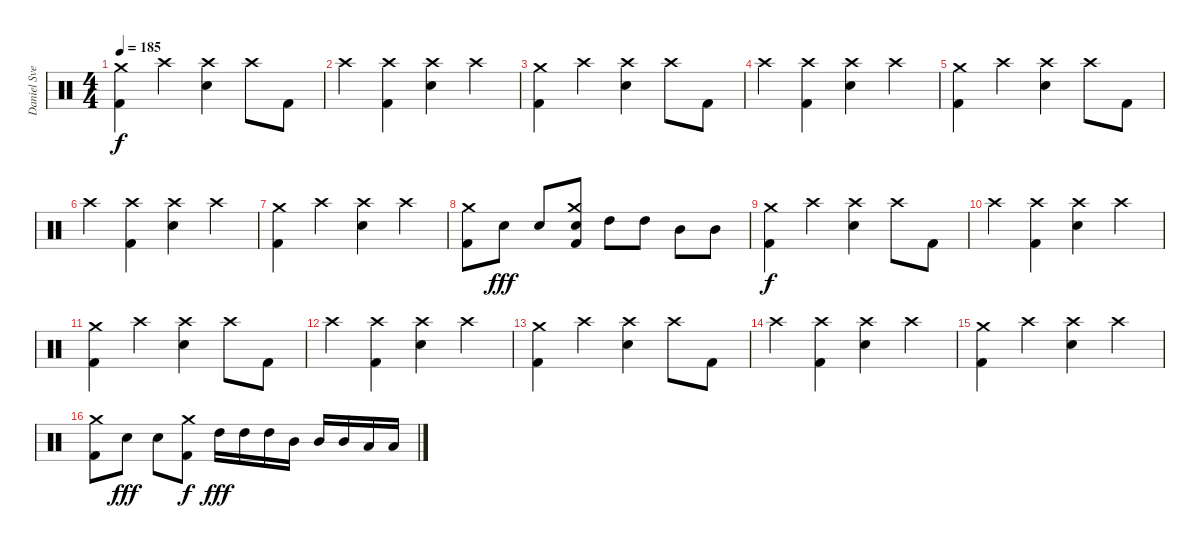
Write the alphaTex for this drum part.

\track ("Daniel Svensson" "Daniel Sve") {instrument percussion}
\staff {score}
\articulation defaults
\ts (4 4)
\tempo 185
\clef neutral
\ks c
("Kick (hit) 2" "Crash medium (hit)").4{dy f} "Crash high (hit)".4 ("Electric Snare (hit)" "Crash high (hit)").4 "Crash high (hit)".8 "Kick (hit) 2".8 |
"Crash high (hit)".4 ("Kick (hit) 2" "Crash high (hit)").4 ("Electric Snare (hit)" "Crash high (hit)").4 "Crash high (hit)".4 |
("Kick (hit) 2" "Crash medium (hit)").4 "Crash high (hit)".4 ("Electric Snare (hit)" "Crash high (hit)").4 "Crash high (hit)".8 "Kick (hit) 2".8 |
"Crash high (hit)".4 ("Kick (hit) 2" "Crash high (hit)").4 ("Electric Snare (hit)" "Crash high (hit)").4 "Crash high (hit)".4 |
("Kick (hit) 2" "Crash medium (hit)").4 "Crash high (hit)".4 ("Electric Snare (hit)" "Crash high (hit)").4 "Crash high (hit)".8 "Kick (hit) 2".8 |
"Crash high (hit)".4 ("Kick (hit) 2" "Crash high (hit)").4 ("Electric Snare (hit)" "Crash high (hit)").4 "Crash high (hit)".4 |
("Kick (hit) 2" "Crash medium (hit)").4 "Crash high (hit)".4 ("Electric Snare (hit)" "Crash high (hit)").4 "Crash high (hit)".4 |
("Kick (hit) 2" "Crash medium (hit)").8 "Electric Snare (hit)".8{dy fff} "Electric Snare (hit)".8 ("Kick (hit) 2" "Electric Snare (hit)" "Crash medium (hit)").8 "High Tom (hit)".8 "High Tom (hit)".8 "Mid Tom (hit)".8 "Mid Tom (hit)".8 |
("Kick (hit) 2" "Crash medium (hit)").4{dy f} "Crash high (hit)".4 ("Electric Snare (hit)" "Crash high (hit)").4 "Crash high (hit)".8 "Kick (hit) 2".8 |
"Crash high (hit)".4 ("Kick (hit) 2" "Crash high (hit)").4 ("Electric Snare (hit)" "Crash high (hit)").4 "Crash high (hit)".4 |
("Kick (hit) 2" "Crash medium (hit)").4 "Crash high (hit)".4 ("Electric Snare (hit)" "Crash high (hit)").4 "Crash high (hit)".8 "Kick (hit) 2".8 |
"Crash high (hit)".4 ("Kick (hit) 2" "Crash high (hit)").4 ("Electric Snare (hit)" "Crash high (hit)").4 "Crash high (hit)".4 |
("Kick (hit) 2" "Crash medium (hit)").4 "Crash high (hit)".4 ("Electric Snare (hit)" "Crash high (hit)").4 "Crash high (hit)".8 "Kick (hit) 2".8 |
"Crash high (hit)".4 ("Kick (hit) 2" "Crash high (hit)").4 ("Electric Snare (hit)" "Crash high (hit)").4 "Crash high (hit)".4 |
("Kick (hit) 2" "Crash medium (hit)").4 "Crash high (hit)".4 ("Electric Snare (hit)" "Crash high (hit)").4 "Crash high (hit)".4 |
("Kick (hit) 2" "Crash medium (hit)").8 "Electric Snare (hit)".8{dy fff} "Electric Snare (hit)".8 ("Kick (hit) 2" "Crash medium (hit)").8{dy f} "High Tom (hit)".16{dy fff} "High Tom (hit)".16 "High Tom (hit)".16 "Mid Tom (hit)".16 "Mid Tom (hit)".16 "Mid Tom (hit)".16 "Low Tom (hit)".16 "Low Tom (hit)".16
